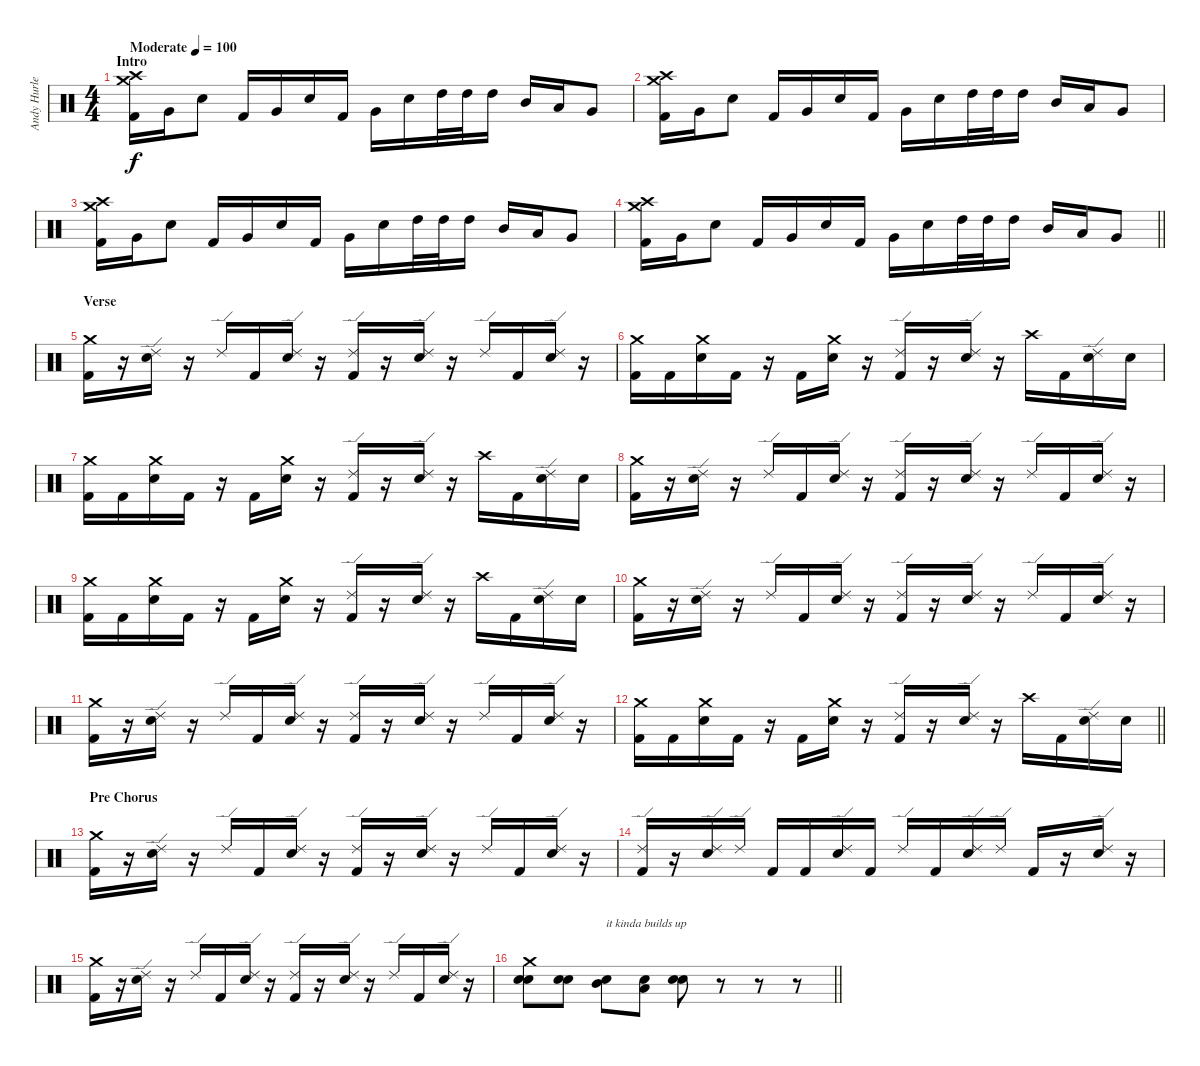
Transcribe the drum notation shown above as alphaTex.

\track ("Andy Hurley" "Andy Hurle") {instrument percussion}
\staff {score}
\articulation defaults
\ts (4 4)
\section ("" "Intro")
\tempo (100 "Moderate")
\clef neutral
\ks c
("Crash high (hit)" "Crash medium (hit)" "Kick (hit) 2").16{dy f} "Very Low Tom (hit)".16 "Electric Snare (hit)".8 "Kick (hit) 2".16 "Very Low Tom (hit)".16 "Electric Snare (hit)".16 "Kick (hit) 2".16 "Very Low Tom (hit)".16 "Electric Snare (hit)".16 "High Tom (hit)".32 "High Tom (hit)".32 "High Tom (hit)".16 "Mid Tom (hit)".16 "Low Tom (hit)".16 "Very Low Tom (hit)".8 |
("Crash high (hit)" "Crash medium (hit)" "Kick (hit) 2").16 "Very Low Tom (hit)".16 "Electric Snare (hit)".8 "Kick (hit) 2".16 "Very Low Tom (hit)".16 "Electric Snare (hit)".16 "Kick (hit) 2".16 "Very Low Tom (hit)".16 "Electric Snare (hit)".16 "High Tom (hit)".32 "High Tom (hit)".32 "High Tom (hit)".16 "Mid Tom (hit)".16 "Low Tom (hit)".16 "Very Low Tom (hit)".8 |
("Crash high (hit)" "Crash medium (hit)" "Kick (hit) 2").16 "Very Low Tom (hit)".16 "Electric Snare (hit)".8 "Kick (hit) 2".16 "Very Low Tom (hit)".16 "Electric Snare (hit)".16 "Kick (hit) 2".16 "Very Low Tom (hit)".16 "Electric Snare (hit)".16 "High Tom (hit)".32 "High Tom (hit)".32 "High Tom (hit)".16 "Mid Tom (hit)".16 "Low Tom (hit)".16 "Very Low Tom (hit)".8 |
\barLineRight lightlight
("Crash high (hit)" "Crash medium (hit)" "Kick (hit) 2").16 "Very Low Tom (hit)".16 "Electric Snare (hit)".8 "Kick (hit) 2".16 "Very Low Tom (hit)".16 "Electric Snare (hit)".16 "Kick (hit) 2".16 "Very Low Tom (hit)".16 "Electric Snare (hit)".16 "High Tom (hit)".32 "High Tom (hit)".32 "High Tom (hit)".16 "Mid Tom (hit)".16 "Low Tom (hit)".16 "Very Low Tom (hit)".8 |
\section ("" "Verse")
("Crash medium (hit)" "Kick (hit) 2").16 r.16 ("Ride (edge) 2" "Electric Snare (hit)").16 r.16 "Ride (edge) 2".16 "Kick (hit) 2".16 ("Ride (edge) 2" "Electric Snare (hit)").16 r.16 ("Ride (edge) 2" "Kick (hit) 2").16 r.16 ("Ride (edge) 2" "Electric Snare (hit)").16 r.16 "Ride (edge) 2".16 "Kick (hit) 2".16 ("Ride (edge) 2" "Electric Snare (hit)").16 r.16 |
("Crash medium (hit)" "Kick (hit) 2").16 "Kick (hit) 2".16 ("Crash medium (hit)" "Electric Snare (hit)").16 "Kick (hit) 2".16 r.16 "Kick (hit) 2".16 ("Crash medium (hit)" "Electric Snare (hit)").16 r.16 ("Ride (edge) 2" "Kick (hit) 2").16 r.16 ("Ride (edge) 2" "Electric Snare (hit)").16 r.16 "Crash high (hit)".16 "Kick (hit) 2".16 ("Ride (edge) 2" "Electric Snare (hit)").16 "Electric Snare (hit)".16 |
("Crash medium (hit)" "Kick (hit) 2").16 "Kick (hit) 2".16 ("Crash medium (hit)" "Electric Snare (hit)").16 "Kick (hit) 2".16 r.16 "Kick (hit) 2".16 ("Crash medium (hit)" "Electric Snare (hit)").16 r.16 ("Ride (edge) 2" "Kick (hit) 2").16 r.16 ("Ride (edge) 2" "Electric Snare (hit)").16 r.16 "Crash high (hit)".16 "Kick (hit) 2".16 ("Ride (edge) 2" "Electric Snare (hit)").16 "Electric Snare (hit)".16 |
("Crash medium (hit)" "Kick (hit) 2").16 r.16 ("Ride (edge) 2" "Electric Snare (hit)").16 r.16 "Ride (edge) 2".16 "Kick (hit) 2".16 ("Ride (edge) 2" "Electric Snare (hit)").16 r.16 ("Ride (edge) 2" "Kick (hit) 2").16 r.16 ("Ride (edge) 2" "Electric Snare (hit)").16 r.16 "Ride (edge) 2".16 "Kick (hit) 2".16 ("Ride (edge) 2" "Electric Snare (hit)").16 r.16 |
("Crash medium (hit)" "Kick (hit) 2").16 "Kick (hit) 2".16 ("Crash medium (hit)" "Electric Snare (hit)").16 "Kick (hit) 2".16 r.16 "Kick (hit) 2".16 ("Crash medium (hit)" "Electric Snare (hit)").16 r.16 ("Ride (edge) 2" "Kick (hit) 2").16 r.16 ("Ride (edge) 2" "Electric Snare (hit)").16 r.16 "Crash high (hit)".16 "Kick (hit) 2".16 ("Ride (edge) 2" "Electric Snare (hit)").16 "Electric Snare (hit)".16 |
("Crash medium (hit)" "Kick (hit) 2").16 r.16 ("Ride (edge) 2" "Electric Snare (hit)").16 r.16 "Ride (edge) 2".16 "Kick (hit) 2".16 ("Ride (edge) 2" "Electric Snare (hit)").16 r.16 ("Ride (edge) 2" "Kick (hit) 2").16 r.16 ("Ride (edge) 2" "Electric Snare (hit)").16 r.16 "Ride (edge) 2".16 "Kick (hit) 2".16 ("Ride (edge) 2" "Electric Snare (hit)").16 r.16 |
("Crash medium (hit)" "Kick (hit) 2").16 r.16 ("Ride (edge) 2" "Electric Snare (hit)").16 r.16 "Ride (edge) 2".16 "Kick (hit) 2".16 ("Ride (edge) 2" "Electric Snare (hit)").16 r.16 ("Ride (edge) 2" "Kick (hit) 2").16 r.16 ("Ride (edge) 2" "Electric Snare (hit)").16 r.16 "Ride (edge) 2".16 "Kick (hit) 2".16 ("Ride (edge) 2" "Electric Snare (hit)").16 r.16 |
\barLineRight lightlight
("Crash medium (hit)" "Kick (hit) 2").16 "Kick (hit) 2".16 ("Crash medium (hit)" "Electric Snare (hit)").16 "Kick (hit) 2".16 r.16 "Kick (hit) 2".16 ("Crash medium (hit)" "Electric Snare (hit)").16 r.16 ("Ride (edge) 2" "Kick (hit) 2").16 r.16 ("Ride (edge) 2" "Electric Snare (hit)").16 r.16 "Crash high (hit)".16 "Kick (hit) 2".16 ("Ride (edge) 2" "Electric Snare (hit)").16 "Electric Snare (hit)".16 |
\section ("" "Pre Chorus")
("Crash medium (hit)" "Kick (hit) 2").16 r.16 ("Ride (edge) 2" "Electric Snare (hit)").16 r.16 "Ride (edge) 2".16 "Kick (hit) 2".16 ("Ride (edge) 2" "Electric Snare (hit)").16 r.16 ("Ride (edge) 2" "Kick (hit) 2").16 r.16 ("Ride (edge) 2" "Electric Snare (hit)").16 r.16 "Ride (edge) 2".16 "Kick (hit) 2".16 ("Ride (edge) 2" "Electric Snare (hit)").16 r.16 |
("Ride (edge) 2" "Kick (hit) 2").16 r.16 ("Ride (edge) 2" "Electric Snare (hit)").16 "Ride (edge) 2".16 "Kick (hit) 2".16 "Kick (hit) 2".16 ("Ride (edge) 2" "Electric Snare (hit)").16 "Kick (hit) 2".16 "Ride (edge) 2".16 "Kick (hit) 2".16 ("Ride (edge) 2" "Electric Snare (hit)").16 "Ride (edge) 2".16 "Kick (hit) 2".16 r.16 ("Ride (edge) 2" "Electric Snare (hit)").16 r.16 |
("Crash medium (hit)" "Kick (hit) 2").16 r.16 ("Ride (edge) 2" "Electric Snare (hit)").16 r.16 "Ride (edge) 2".16 "Kick (hit) 2".16 ("Ride (edge) 2" "Electric Snare (hit)").16 r.16 ("Ride (edge) 2" "Kick (hit) 2").16 r.16 ("Ride (edge) 2" "Electric Snare (hit)").16 r.16 "Ride (edge) 2".16 "Kick (hit) 2".16 ("Ride (edge) 2" "Electric Snare (hit)").16 r.16 |
\barLineRight lightlight
("Crash medium (hit)" "Electric Snare (hit)" "Snare (hit) 2").8 ("Electric Snare (hit)" "Snare (hit) 2").8 ("Mid Tom (hit)" "Snare (hit) 2").8{txt "it kinda builds up"} ("Low Tom (hit)" "Snare (hit) 2").8 ("Electric Snare (hit)" "Snare (hit) 2").8 r.8 r.8 r.8
